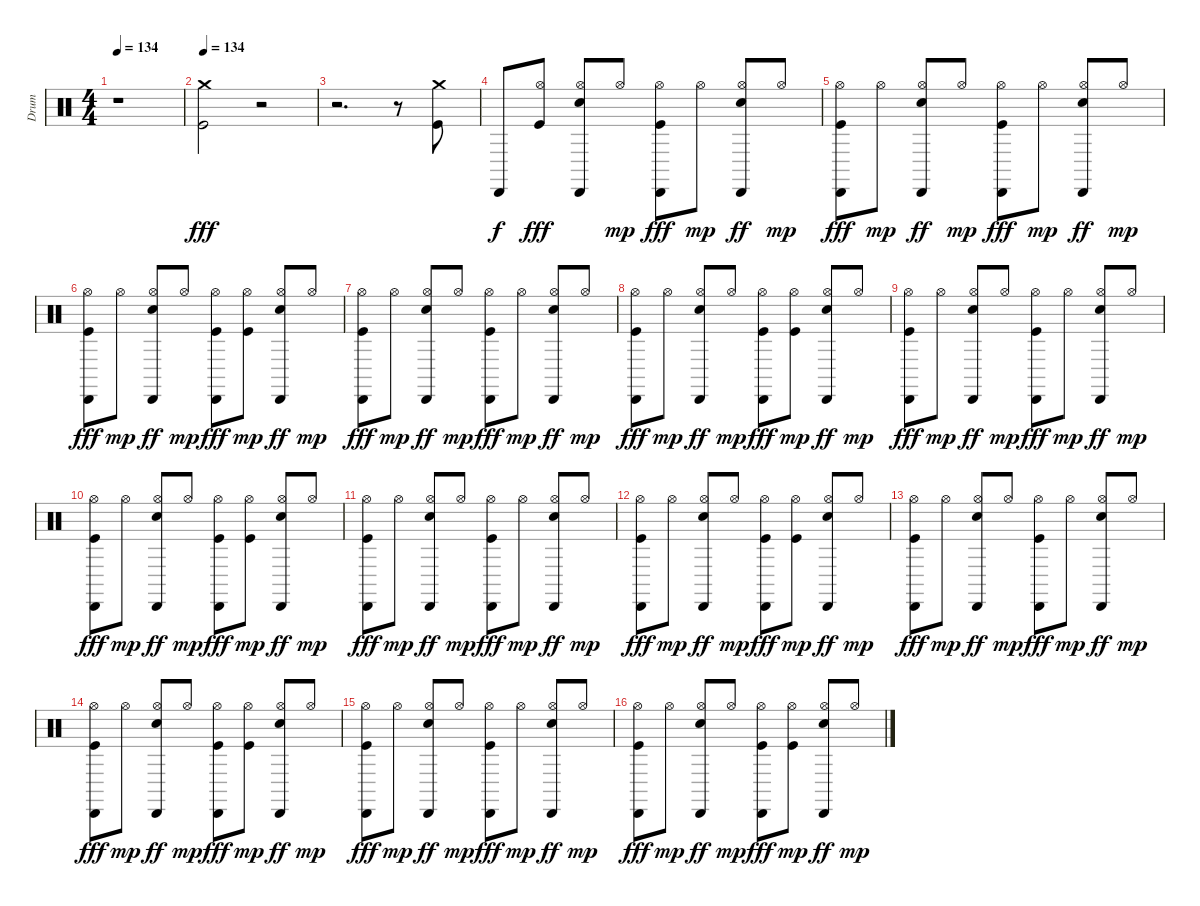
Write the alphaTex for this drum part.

\track ("Drum" "Drum") {instrument percussion}
\staff {score}
\articulation defaults
\ts (4 4)
\tempo 134
\tempo 67
\tempo 134
\clef neutral
\ks c
r.1{dy fff} |
\tempo 134
("Crash medium (hit)" "Kick (hit)").2 r.2 |
r.2{d} r.8 ("Kick (hit)" "Crash medium (hit)").8 |
"Cabasa (hit)".8{dy f} ("Hi-Hat (open)" "Kick (hit)").8{dy fff} ("Hi-Hat (open)" "Electric Snare (hit)" "Cabasa (hit)").8 "Hi-Hat (open)".8{dy mp} ("Kick (hit)" "Hi-Hat (open)" "Cabasa (hit)").8{dy fff} "Hi-Hat (open)".8{dy mp} ("Electric Snare (hit)" "Cabasa (hit)" "Hi-Hat (open)").8{dy ff} "Hi-Hat (open)".8{dy mp} |
("Kick (hit)" "Hi-Hat (open)" "Cabasa (hit)").8{dy fff} "Hi-Hat (open)".8{dy mp} ("Electric Snare (hit)" "Cabasa (hit)" "Hi-Hat (open)").8{dy ff} "Hi-Hat (open)".8{dy mp} ("Cabasa (hit)" "Kick (hit)" "Hi-Hat (open)").8{dy fff} "Hi-Hat (open)".8{dy mp} ("Cabasa (hit)" "Electric Snare (hit)" "Hi-Hat (open)").8{dy ff} "Hi-Hat (open)".8{dy mp} |
("Kick (hit)" "Hi-Hat (open)" "Cabasa (hit)").8{dy fff} "Hi-Hat (open)".8{dy mp} ("Electric Snare (hit)" "Cabasa (hit)" "Hi-Hat (open)").8{dy ff} "Hi-Hat (open)".8{dy mp} ("Cabasa (hit)" "Kick (hit)" "Hi-Hat (open)").8{dy fff} ("Kick (hit)" "Hi-Hat (open)").8{dy mp} ("Cabasa (hit)" "Electric Snare (hit)" "Hi-Hat (open)").8{dy ff} "Hi-Hat (open)".8{dy mp} |
("Kick (hit)" "Hi-Hat (open)" "Cabasa (hit)").8{dy fff} "Hi-Hat (open)".8{dy mp} ("Electric Snare (hit)" "Cabasa (hit)" "Hi-Hat (open)").8{dy ff} "Hi-Hat (open)".8{dy mp} ("Cabasa (hit)" "Kick (hit)" "Hi-Hat (open)").8{dy fff} "Hi-Hat (open)".8{dy mp} ("Cabasa (hit)" "Electric Snare (hit)" "Hi-Hat (open)").8{dy ff} "Hi-Hat (open)".8{dy mp} |
("Cabasa (hit)" "Kick (hit)" "Hi-Hat (open)").8{dy fff} "Hi-Hat (open)".8{dy mp} ("Cabasa (hit)" "Electric Snare (hit)" "Hi-Hat (open)").8{dy ff} "Hi-Hat (open)".8{dy mp} ("Cabasa (hit)" "Kick (hit)" "Hi-Hat (open)").8{dy fff} ("Kick (hit)" "Hi-Hat (open)").8{dy mp} ("Cabasa (hit)" "Electric Snare (hit)" "Hi-Hat (open)").8{dy ff} "Hi-Hat (open)".8{dy mp} |
("Cabasa (hit)" "Kick (hit)" "Hi-Hat (open)").8{dy fff} "Hi-Hat (open)".8{dy mp} ("Cabasa (hit)" "Electric Snare (hit)" "Hi-Hat (open)").8{dy ff} "Hi-Hat (open)".8{dy mp} ("Cabasa (hit)" "Kick (hit)" "Hi-Hat (open)").8{dy fff} "Hi-Hat (open)".8{dy mp} ("Cabasa (hit)" "Electric Snare (hit)" "Hi-Hat (open)").8{dy ff} "Hi-Hat (open)".8{dy mp} |
("Kick (hit)" "Hi-Hat (open)" "Cabasa (hit)").8{dy fff} "Hi-Hat (open)".8{dy mp} ("Electric Snare (hit)" "Cabasa (hit)" "Hi-Hat (open)").8{dy ff} "Hi-Hat (open)".8{dy mp} ("Cabasa (hit)" "Kick (hit)" "Hi-Hat (open)").8{dy fff} ("Kick (hit)" "Hi-Hat (open)").8{dy mp} ("Cabasa (hit)" "Electric Snare (hit)" "Hi-Hat (open)").8{dy ff} "Hi-Hat (open)".8{dy mp} |
("Kick (hit)" "Hi-Hat (open)" "Cabasa (hit)").8{dy fff} "Hi-Hat (open)".8{dy mp} ("Electric Snare (hit)" "Cabasa (hit)" "Hi-Hat (open)").8{dy ff} "Hi-Hat (open)".8{dy mp} ("Cabasa (hit)" "Kick (hit)" "Hi-Hat (open)").8{dy fff} "Hi-Hat (open)".8{dy mp} ("Cabasa (hit)" "Electric Snare (hit)" "Hi-Hat (open)").8{dy ff} "Hi-Hat (open)".8{dy mp} |
("Cabasa (hit)" "Kick (hit)" "Hi-Hat (open)").8{dy fff} "Hi-Hat (open)".8{dy mp} ("Cabasa (hit)" "Electric Snare (hit)" "Hi-Hat (open)").8{dy ff} "Hi-Hat (open)".8{dy mp} ("Cabasa (hit)" "Kick (hit)" "Hi-Hat (open)").8{dy fff} ("Kick (hit)" "Hi-Hat (open)").8{dy mp} ("Cabasa (hit)" "Electric Snare (hit)" "Hi-Hat (open)").8{dy ff} "Hi-Hat (open)".8{dy mp} |
("Kick (hit)" "Hi-Hat (open)" "Cabasa (hit)").8{dy fff} "Hi-Hat (open)".8{dy mp} ("Electric Snare (hit)" "Cabasa (hit)" "Hi-Hat (open)").8{dy ff} "Hi-Hat (open)".8{dy mp} ("Cabasa (hit)" "Kick (hit)" "Hi-Hat (open)").8{dy fff} "Hi-Hat (open)".8{dy mp} ("Cabasa (hit)" "Electric Snare (hit)" "Hi-Hat (open)").8{dy ff} "Hi-Hat (open)".8{dy mp} |
("Cabasa (hit)" "Kick (hit)" "Hi-Hat (open)").8{dy fff} "Hi-Hat (open)".8{dy mp} ("Cabasa (hit)" "Electric Snare (hit)" "Hi-Hat (open)").8{dy ff} "Hi-Hat (open)".8{dy mp} ("Cabasa (hit)" "Kick (hit)" "Hi-Hat (open)").8{dy fff} ("Kick (hit)" "Hi-Hat (open)").8{dy mp} ("Cabasa (hit)" "Electric Snare (hit)" "Hi-Hat (open)").8{dy ff} "Hi-Hat (open)".8{dy mp} |
("Kick (hit)" "Hi-Hat (open)" "Cabasa (hit)").8{dy fff} "Hi-Hat (open)".8{dy mp} ("Electric Snare (hit)" "Cabasa (hit)" "Hi-Hat (open)").8{dy ff} "Hi-Hat (open)".8{dy mp} ("Cabasa (hit)" "Kick (hit)" "Hi-Hat (open)").8{dy fff} "Hi-Hat (open)".8{dy mp} ("Cabasa (hit)" "Electric Snare (hit)" "Hi-Hat (open)").8{dy ff} "Hi-Hat (open)".8{dy mp} |
("Cabasa (hit)" "Kick (hit)" "Hi-Hat (open)").8{dy fff} "Hi-Hat (open)".8{dy mp} ("Cabasa (hit)" "Electric Snare (hit)" "Hi-Hat (open)").8{dy ff} "Hi-Hat (open)".8{dy mp} ("Cabasa (hit)" "Kick (hit)" "Hi-Hat (open)").8{dy fff} ("Kick (hit)" "Hi-Hat (open)").8{dy mp} ("Cabasa (hit)" "Electric Snare (hit)" "Hi-Hat (open)").8{dy ff} "Hi-Hat (open)".8{dy mp}
